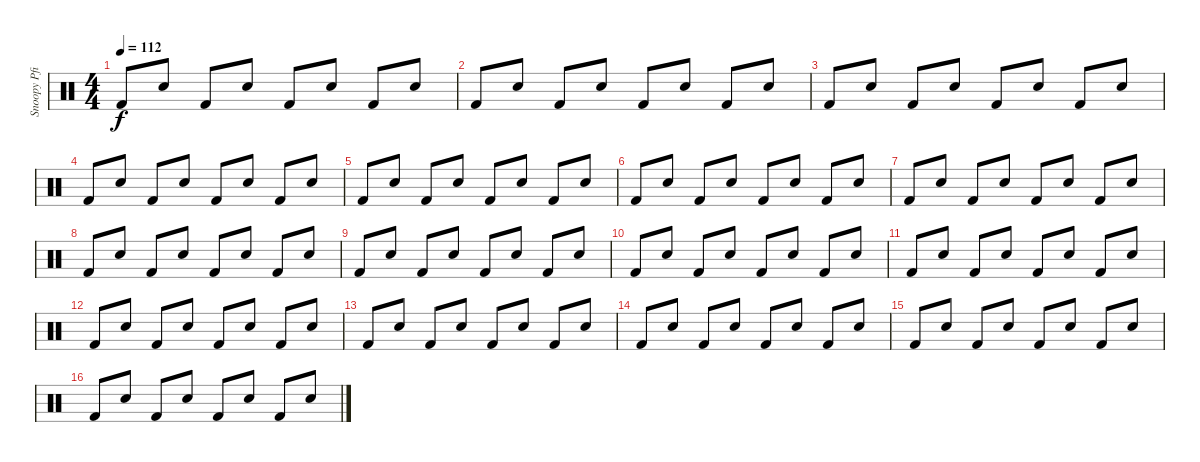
\track ("Snoopy Pfisterer (percussion)" "Snoopy Pfi") {instrument percussion}
\staff {score}
\articulation defaults
\ts (4 4)
\tempo 112
\clef neutral
\ks c "Kick (hit) 2".8{dy f} "Snare (hit) 2".8 "Kick (hit) 2".8 "Snare (hit) 2".8 "Kick (hit) 2".8 "Snare (hit) 2".8 "Kick (hit) 2".8 "Snare (hit) 2".8
|
"Kick (hit) 2".8 "Snare (hit) 2".8 "Kick (hit) 2".8 "Snare (hit) 2".8 "Kick (hit) 2".8 "Snare (hit) 2".8 "Kick (hit) 2".8 "Snare (hit) 2".8 |
"Kick (hit) 2".8 "Snare (hit) 2".8 "Kick (hit) 2".8 "Snare (hit) 2".8 "Kick (hit) 2".8 "Snare (hit) 2".8 "Kick (hit) 2".8 "Snare (hit) 2".8 |
"Kick (hit) 2".8 "Snare (hit) 2".8 "Kick (hit) 2".8 "Snare (hit) 2".8 "Kick (hit) 2".8 "Snare (hit) 2".8 "Kick (hit) 2".8 "Snare (hit) 2".8 |
"Kick (hit) 2".8 "Snare (hit) 2".8 "Kick (hit) 2".8 "Snare (hit) 2".8 "Kick (hit) 2".8 "Snare (hit) 2".8 "Kick (hit) 2".8 "Snare (hit) 2".8 |
"Kick (hit) 2".8 "Snare (hit) 2".8 "Kick (hit) 2".8 "Snare (hit) 2".8 "Kick (hit) 2".8 "Snare (hit) 2".8 "Kick (hit) 2".8 "Snare (hit) 2".8 |
"Kick (hit) 2".8 "Snare (hit) 2".8 "Kick (hit) 2".8 "Snare (hit) 2".8 "Kick (hit) 2".8 "Snare (hit) 2".8 "Kick (hit) 2".8 "Snare (hit) 2".8 |
"Kick (hit) 2".8 "Snare (hit) 2".8 "Kick (hit) 2".8 "Snare (hit) 2".8 "Kick (hit) 2".8 "Snare (hit) 2".8 "Kick (hit) 2".8 "Snare (hit) 2".8 |
"Kick (hit) 2".8 "Snare (hit) 2".8 "Kick (hit) 2".8 "Snare (hit) 2".8 "Kick (hit) 2".8 "Snare (hit) 2".8 "Kick (hit) 2".8 "Snare (hit) 2".8 |
"Kick (hit) 2".8 "Snare (hit) 2".8 "Kick (hit) 2".8 "Snare (hit) 2".8 "Kick (hit) 2".8 "Snare (hit) 2".8 "Kick (hit) 2".8 "Snare (hit) 2".8 |
"Kick (hit) 2".8 "Snare (hit) 2".8 "Kick (hit) 2".8 "Snare (hit) 2".8 "Kick (hit) 2".8 "Snare (hit) 2".8 "Kick (hit) 2".8 "Snare (hit) 2".8 |
"Kick (hit) 2".8 "Snare (hit) 2".8 "Kick (hit) 2".8 "Snare (hit) 2".8 "Kick (hit) 2".8 "Snare (hit) 2".8 "Kick (hit) 2".8 "Snare (hit) 2".8 |
"Kick (hit) 2".8 "Snare (hit) 2".8 "Kick (hit) 2".8 "Snare (hit) 2".8 "Kick (hit) 2".8 "Snare (hit) 2".8 "Kick (hit) 2".8 "Snare (hit) 2".8 |
"Kick (hit) 2".8 "Snare (hit) 2".8 "Kick (hit) 2".8 "Snare (hit) 2".8 "Kick (hit) 2".8 "Snare (hit) 2".8 "Kick (hit) 2".8 "Snare (hit) 2".8 |
"Kick (hit) 2".8 "Snare (hit) 2".8 "Kick (hit) 2".8 "Snare (hit) 2".8 "Kick (hit) 2".8 "Snare (hit) 2".8 "Kick (hit) 2".8 "Snare (hit) 2".8 |
"Kick (hit) 2".8 "Snare (hit) 2".8 "Kick (hit) 2".8 "Snare (hit) 2".8 "Kick (hit) 2".8 "Snare (hit) 2".8 "Kick (hit) 2".8 "Snare (hit) 2".8
